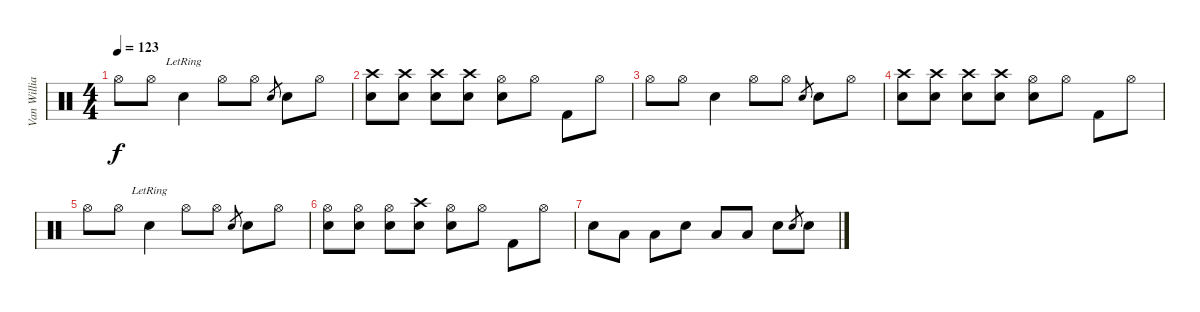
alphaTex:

\track ("Van Williams" "Van Willia") {instrument percussion}
\staff {score}
\articulation defaults
\ts (4 4)
\tempo 123
\clef neutral
\ks c "Hi-Hat (open)".8{dy f} "Hi-Hat (open)".8 "Electric Snare (hit)"{lr}.4 "Hi-Hat (open)".8 "Hi-Hat (open)".8 "Electric Snare (hit)".8{gr} "Electric Snare (hit)".8 "Hi-Hat (open)".8
|
("Crash high (hit)" "Electric Snare (hit)").8 ("Crash high (hit)" "Electric Snare (hit)").8 ("Crash high (hit)" "Electric Snare (hit)").8 ("Crash high (hit)" "Electric Snare (hit)").8 ("Hi-Hat (open)" "Electric Snare (hit)").8 "Hi-Hat (open)".8 "Kick (hit) 2".8 "Hi-Hat (open)".8 |
"Hi-Hat (open)".8 "Hi-Hat (open)".8 "Electric Snare (hit)".4 "Hi-Hat (open)".8 "Hi-Hat (open)".8 "Electric Snare (hit)".8{gr} "Electric Snare (hit)".8 "Hi-Hat (open)".8 |
("Crash high (hit)" "Electric Snare (hit)").8 ("Crash high (hit)" "Electric Snare (hit)").8 ("Crash high (hit)" "Electric Snare (hit)").8 ("Crash high (hit)" "Electric Snare (hit)").8 ("Hi-Hat (open)" "Electric Snare (hit)").8 "Hi-Hat (open)".8 "Kick (hit) 2".8 "Hi-Hat (open)".8 |
"Hi-Hat (open)".8 "Hi-Hat (open)".8 "Electric Snare (hit)"{lr}.4 "Hi-Hat (open)".8 "Hi-Hat (open)".8 "Electric Snare (hit)".8{gr} "Electric Snare (hit)".8 "Hi-Hat (open)".8 |
("Hi-Hat (open)" "Electric Snare (hit)").8 ("Hi-Hat (open)" "Electric Snare (hit)").8 ("Hi-Hat (open)" "Electric Snare (hit)").8 ("Crash high (hit)" "Electric Snare (hit)").8 ("Hi-Hat (open)" "Electric Snare (hit)").8 "Hi-Hat (open)".8 "Kick (hit) 2".8 "Hi-Hat (open)".8 |
"Electric Snare (hit)".8 "Low Floor Tom (hit)".8 "Low Floor Tom (hit)".8 "Electric Snare (hit)".8 "Low Floor Tom (hit)".8 "Low Floor Tom (hit)".8 "Electric Snare (hit)".8 "Electric Snare (hit)".8{gr} "Electric Snare (hit)".8
